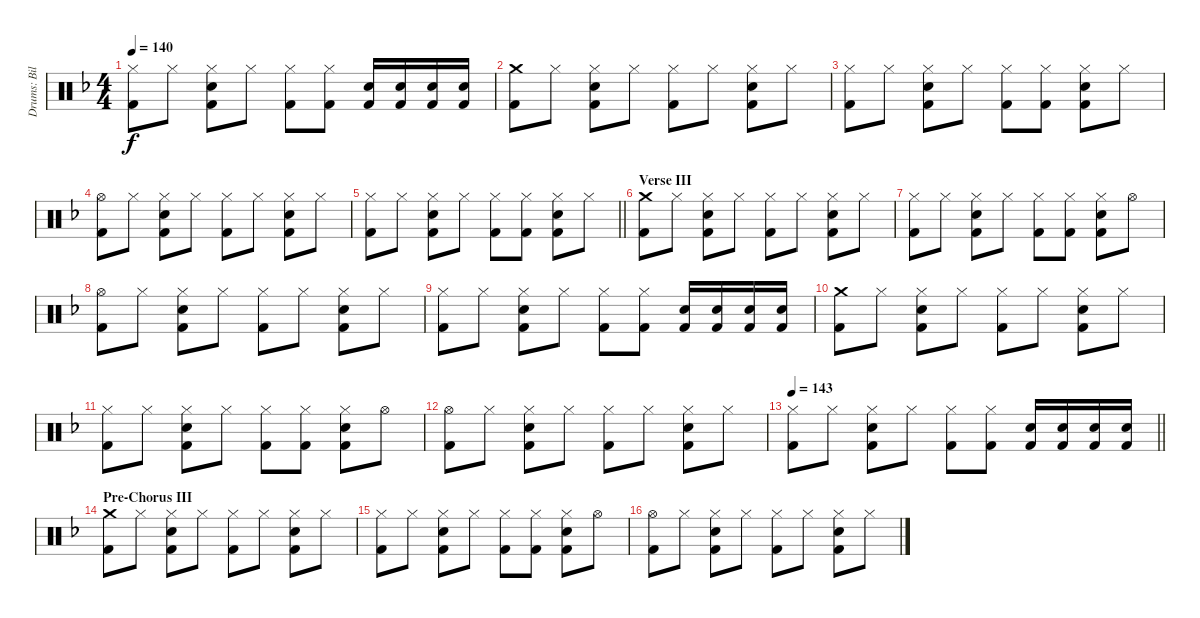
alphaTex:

\track ("Drums: Bill" "Drums: Bil") {instrument percussion}
\staff {score}
\articulation defaults
\ts (4 4)
\tempo 140
\clef neutral
\ks f
("Hi-Hat (closed)" "Kick (hit) 2").8{dy f} "Hi-Hat (closed)".8 ("Hi-Hat (closed)" "Snare (hit) 2" "Kick (hit) 2").8 "Hi-Hat (closed)".8 ("Hi-Hat (closed)" "Kick (hit) 2").8 ("Hi-Hat (closed)" "Kick (hit) 2").8 ("Electric Snare (hit)" "Kick (hit) 2").16 ("Electric Snare (hit)" "Kick (hit) 2").16 ("Electric Snare (hit)" "Kick (hit) 2").16 ("Electric Snare (hit)" "Kick (hit) 2").16 |
("Crash medium (hit)" "Kick (hit) 2").8 "Hi-Hat (closed)".8 ("Hi-Hat (closed)" "Snare (hit) 2" "Kick (hit) 2").8 "Hi-Hat (closed)".8 ("Hi-Hat (closed)" "Kick (hit) 2").8 "Hi-Hat (closed)".8 ("Hi-Hat (closed)" "Snare (hit) 2" "Kick (hit) 2").8 "Hi-Hat (closed)".8 |
("Hi-Hat (closed)" "Kick (hit) 2").8 "Hi-Hat (closed)".8 ("Hi-Hat (closed)" "Snare (hit) 2" "Kick (hit) 2").8 "Hi-Hat (closed)".8 ("Hi-Hat (closed)" "Kick (hit) 2").8 ("Hi-Hat (closed)" "Kick (hit) 2").8 ("Hi-Hat (closed)" "Snare (hit) 2" "Kick (hit) 2").8 "Hi-Hat (closed)".8 |
("Hi-Hat (open)" "Kick (hit) 2").8 "Hi-Hat (closed)".8 ("Hi-Hat (closed)" "Snare (hit) 2" "Kick (hit) 2").8 "Hi-Hat (closed)".8 ("Hi-Hat (closed)" "Kick (hit) 2").8 "Hi-Hat (closed)".8 ("Hi-Hat (closed)" "Snare (hit) 2" "Kick (hit) 2").8 "Hi-Hat (closed)".8 |
\barLineRight lightlight
("Hi-Hat (closed)" "Kick (hit) 2").8 "Hi-Hat (closed)".8 ("Hi-Hat (closed)" "Snare (hit) 2" "Kick (hit) 2").8 "Hi-Hat (closed)".8 ("Hi-Hat (closed)" "Kick (hit) 2").8 ("Hi-Hat (closed)" "Kick (hit) 2").8 ("Hi-Hat (closed)" "Snare (hit) 2" "Kick (hit) 2").8 "Hi-Hat (closed)".8 |
\section ("" "Verse III")
("Crash medium (hit)" "Kick (hit) 2").8 "Hi-Hat (closed)".8 ("Hi-Hat (closed)" "Snare (hit) 2" "Kick (hit) 2").8 "Hi-Hat (closed)".8 ("Hi-Hat (closed)" "Kick (hit) 2").8 "Hi-Hat (closed)".8 ("Hi-Hat (closed)" "Snare (hit) 2" "Kick (hit) 2").8 "Hi-Hat (closed)".8 |
("Hi-Hat (closed)" "Kick (hit) 2").8 "Hi-Hat (closed)".8 ("Hi-Hat (closed)" "Snare (hit) 2" "Kick (hit) 2").8 "Hi-Hat (closed)".8 ("Hi-Hat (closed)" "Kick (hit) 2").8 ("Hi-Hat (closed)" "Kick (hit) 2").8 ("Hi-Hat (closed)" "Snare (hit) 2" "Kick (hit) 2").8 "Hi-Hat (open)".8 |
("Hi-Hat (open)" "Kick (hit) 2").8 "Hi-Hat (closed)".8 ("Hi-Hat (closed)" "Snare (hit) 2" "Kick (hit) 2").8 "Hi-Hat (closed)".8 ("Hi-Hat (closed)" "Kick (hit) 2").8 "Hi-Hat (closed)".8 ("Hi-Hat (closed)" "Snare (hit) 2" "Kick (hit) 2").8 "Hi-Hat (closed)".8 |
("Hi-Hat (closed)" "Kick (hit) 2").8 "Hi-Hat (closed)".8 ("Hi-Hat (closed)" "Snare (hit) 2" "Kick (hit) 2").8 "Hi-Hat (closed)".8 ("Hi-Hat (closed)" "Kick (hit) 2").8 ("Hi-Hat (closed)" "Kick (hit) 2").8 ("Snare (hit) 2" "Kick (hit) 2").16 ("Snare (hit) 2" "Kick (hit) 2").16 ("Snare (hit) 2" "Kick (hit) 2").16 ("Snare (hit) 2" "Kick (hit) 2").16 |
("Crash medium (hit)" "Kick (hit) 2").8 "Hi-Hat (closed)".8 ("Hi-Hat (closed)" "Snare (hit) 2" "Kick (hit) 2").8 "Hi-Hat (closed)".8 ("Hi-Hat (closed)" "Kick (hit) 2").8 "Hi-Hat (closed)".8 ("Hi-Hat (closed)" "Snare (hit) 2" "Kick (hit) 2").8 "Hi-Hat (closed)".8 |
("Hi-Hat (closed)" "Kick (hit) 2").8 "Hi-Hat (closed)".8 ("Hi-Hat (closed)" "Snare (hit) 2" "Kick (hit) 2").8 "Hi-Hat (closed)".8 ("Hi-Hat (closed)" "Kick (hit) 2").8 ("Hi-Hat (closed)" "Kick (hit) 2").8 ("Hi-Hat (closed)" "Snare (hit) 2" "Kick (hit) 2").8 "Hi-Hat (open)".8 |
("Hi-Hat (open)" "Kick (hit) 2").8 "Hi-Hat (closed)".8 ("Hi-Hat (closed)" "Snare (hit) 2" "Kick (hit) 2").8 "Hi-Hat (closed)".8 ("Hi-Hat (closed)" "Kick (hit) 2").8 "Hi-Hat (closed)".8 ("Hi-Hat (closed)" "Snare (hit) 2" "Kick (hit) 2").8 "Hi-Hat (closed)".8 |
\tempo 143
\barLineRight lightlight
("Hi-Hat (closed)" "Kick (hit) 2").8 "Hi-Hat (closed)".8 ("Hi-Hat (closed)" "Snare (hit) 2" "Kick (hit) 2").8 "Hi-Hat (closed)".8 ("Hi-Hat (closed)" "Kick (hit) 2").8 ("Hi-Hat (closed)" "Kick (hit) 2").8 ("Snare (hit) 2" "Kick (hit) 2").16 ("Snare (hit) 2" "Kick (hit) 2").16 ("Snare (hit) 2" "Kick (hit) 2").16 ("Snare (hit) 2" "Kick (hit) 2").16 |
\section ("" "Pre-Chorus III")
("Crash medium (hit)" "Kick (hit) 2").8 "Hi-Hat (closed)".8 ("Hi-Hat (closed)" "Snare (hit) 2" "Kick (hit) 2").8 "Hi-Hat (closed)".8 ("Hi-Hat (closed)" "Kick (hit) 2").8 "Hi-Hat (closed)".8 ("Hi-Hat (closed)" "Snare (hit) 2" "Kick (hit) 2").8 "Hi-Hat (closed)".8 |
("Hi-Hat (closed)" "Kick (hit) 2").8 "Hi-Hat (closed)".8 ("Hi-Hat (closed)" "Snare (hit) 2" "Kick (hit) 2").8 "Hi-Hat (closed)".8 ("Hi-Hat (closed)" "Kick (hit) 2").8 ("Hi-Hat (closed)" "Kick (hit) 2").8 ("Hi-Hat (closed)" "Snare (hit) 2" "Kick (hit) 2").8 "Hi-Hat (open)".8 |
("Hi-Hat (open)" "Kick (hit) 2").8 "Hi-Hat (closed)".8 ("Hi-Hat (closed)" "Snare (hit) 2" "Kick (hit) 2").8 "Hi-Hat (closed)".8 ("Hi-Hat (closed)" "Kick (hit) 2").8 "Hi-Hat (closed)".8 ("Hi-Hat (closed)" "Snare (hit) 2" "Kick (hit) 2").8 "Hi-Hat (closed)".8
